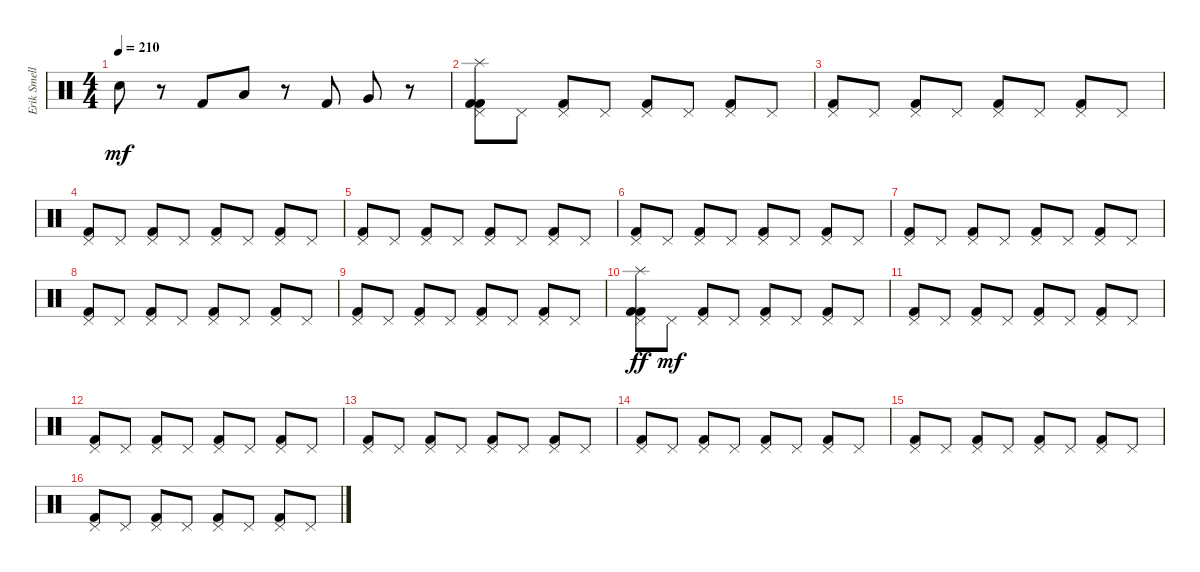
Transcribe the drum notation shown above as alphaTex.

\track ("Erik Smelly" "Erik Smell") {instrument percussion}
\staff {score}
\articulation defaults
\ts (4 4)
\tempo 210
\clef neutral
\ks c "Electric Snare (hit)".8{dy mf}
r.8 "Kick (hit) 2".8 "Low Tom (hit)".8 r.8 "Kick (hit) 2".8 "Very Low Tom (hit)".8 r.8 |
("Pedal Hi-Hat (hit)" "Kick (hit) 2" "Splash (hit)" "Kick (hit) 2").8 "Pedal Hi-Hat (hit)".8 ("Pedal Hi-Hat (hit)" "Kick (hit) 2").8 "Pedal Hi-Hat (hit)".8 ("Pedal Hi-Hat (hit)" "Kick (hit) 2").8 "Pedal Hi-Hat (hit)".8 ("Pedal Hi-Hat (hit)" "Kick (hit) 2").8 "Pedal Hi-Hat (hit)".8 |
("Pedal Hi-Hat (hit)" "Kick (hit) 2").8 "Pedal Hi-Hat (hit)".8 ("Pedal Hi-Hat (hit)" "Kick (hit) 2").8 "Pedal Hi-Hat (hit)".8 ("Pedal Hi-Hat (hit)" "Kick (hit) 2").8 "Pedal Hi-Hat (hit)".8 ("Pedal Hi-Hat (hit)" "Kick (hit) 2").8 "Pedal Hi-Hat (hit)".8 |
("Pedal Hi-Hat (hit)" "Kick (hit) 2").8 "Pedal Hi-Hat (hit)".8 ("Pedal Hi-Hat (hit)" "Kick (hit) 2").8 "Pedal Hi-Hat (hit)".8 ("Pedal Hi-Hat (hit)" "Kick (hit) 2").8 "Pedal Hi-Hat (hit)".8 ("Pedal Hi-Hat (hit)" "Kick (hit) 2").8 "Pedal Hi-Hat (hit)".8 |
("Pedal Hi-Hat (hit)" "Kick (hit) 2").8 "Pedal Hi-Hat (hit)".8 ("Pedal Hi-Hat (hit)" "Kick (hit) 2").8 "Pedal Hi-Hat (hit)".8 ("Pedal Hi-Hat (hit)" "Kick (hit) 2").8 "Pedal Hi-Hat (hit)".8 ("Pedal Hi-Hat (hit)" "Kick (hit) 2").8 "Pedal Hi-Hat (hit)".8 |
("Pedal Hi-Hat (hit)" "Kick (hit) 2").8 "Pedal Hi-Hat (hit)".8 ("Pedal Hi-Hat (hit)" "Kick (hit) 2").8 "Pedal Hi-Hat (hit)".8 ("Pedal Hi-Hat (hit)" "Kick (hit) 2").8 "Pedal Hi-Hat (hit)".8 ("Pedal Hi-Hat (hit)" "Kick (hit) 2").8 "Pedal Hi-Hat (hit)".8 |
("Pedal Hi-Hat (hit)" "Kick (hit) 2").8 "Pedal Hi-Hat (hit)".8 ("Pedal Hi-Hat (hit)" "Kick (hit) 2").8 "Pedal Hi-Hat (hit)".8 ("Pedal Hi-Hat (hit)" "Kick (hit) 2").8 "Pedal Hi-Hat (hit)".8 ("Pedal Hi-Hat (hit)" "Kick (hit) 2").8 "Pedal Hi-Hat (hit)".8 |
("Pedal Hi-Hat (hit)" "Kick (hit) 2").8 "Pedal Hi-Hat (hit)".8 ("Pedal Hi-Hat (hit)" "Kick (hit) 2").8 "Pedal Hi-Hat (hit)".8 ("Pedal Hi-Hat (hit)" "Kick (hit) 2").8 "Pedal Hi-Hat (hit)".8 ("Pedal Hi-Hat (hit)" "Kick (hit) 2").8 "Pedal Hi-Hat (hit)".8 |
("Pedal Hi-Hat (hit)" "Kick (hit) 2").8 "Pedal Hi-Hat (hit)".8 ("Pedal Hi-Hat (hit)" "Kick (hit) 2").8 "Pedal Hi-Hat (hit)".8 ("Pedal Hi-Hat (hit)" "Kick (hit) 2").8 "Pedal Hi-Hat (hit)".8 ("Pedal Hi-Hat (hit)" "Kick (hit) 2").8 "Pedal Hi-Hat (hit)".8 |
("Pedal Hi-Hat (hit)" "Kick (hit) 2" "Kick (hit) 2" "Splash (hit)").8{dy ff} "Pedal Hi-Hat (hit)".8{dy mf} ("Pedal Hi-Hat (hit)" "Kick (hit) 2").8 "Pedal Hi-Hat (hit)".8 ("Pedal Hi-Hat (hit)" "Kick (hit) 2").8 "Pedal Hi-Hat (hit)".8 ("Pedal Hi-Hat (hit)" "Kick (hit) 2").8 "Pedal Hi-Hat (hit)".8 |
("Pedal Hi-Hat (hit)" "Kick (hit) 2").8 "Pedal Hi-Hat (hit)".8 ("Pedal Hi-Hat (hit)" "Kick (hit) 2").8 "Pedal Hi-Hat (hit)".8 ("Pedal Hi-Hat (hit)" "Kick (hit) 2").8 "Pedal Hi-Hat (hit)".8 ("Pedal Hi-Hat (hit)" "Kick (hit) 2").8 "Pedal Hi-Hat (hit)".8 |
("Pedal Hi-Hat (hit)" "Kick (hit) 2").8 "Pedal Hi-Hat (hit)".8 ("Pedal Hi-Hat (hit)" "Kick (hit) 2").8 "Pedal Hi-Hat (hit)".8 ("Pedal Hi-Hat (hit)" "Kick (hit) 2").8 "Pedal Hi-Hat (hit)".8 ("Pedal Hi-Hat (hit)" "Kick (hit) 2").8 "Pedal Hi-Hat (hit)".8 |
("Pedal Hi-Hat (hit)" "Kick (hit) 2").8 "Pedal Hi-Hat (hit)".8 ("Pedal Hi-Hat (hit)" "Kick (hit) 2").8 "Pedal Hi-Hat (hit)".8 ("Pedal Hi-Hat (hit)" "Kick (hit) 2").8 "Pedal Hi-Hat (hit)".8 ("Pedal Hi-Hat (hit)" "Kick (hit) 2").8 "Pedal Hi-Hat (hit)".8 |
("Pedal Hi-Hat (hit)" "Kick (hit) 2").8 "Pedal Hi-Hat (hit)".8 ("Pedal Hi-Hat (hit)" "Kick (hit) 2").8 "Pedal Hi-Hat (hit)".8 ("Pedal Hi-Hat (hit)" "Kick (hit) 2").8 "Pedal Hi-Hat (hit)".8 ("Pedal Hi-Hat (hit)" "Kick (hit) 2").8 "Pedal Hi-Hat (hit)".8 |
("Pedal Hi-Hat (hit)" "Kick (hit) 2").8 "Pedal Hi-Hat (hit)".8 ("Pedal Hi-Hat (hit)" "Kick (hit) 2").8 "Pedal Hi-Hat (hit)".8 ("Pedal Hi-Hat (hit)" "Kick (hit) 2").8 "Pedal Hi-Hat (hit)".8 ("Pedal Hi-Hat (hit)" "Kick (hit) 2").8 "Pedal Hi-Hat (hit)".8 |
("Pedal Hi-Hat (hit)" "Kick (hit) 2").8 "Pedal Hi-Hat (hit)".8 ("Pedal Hi-Hat (hit)" "Kick (hit) 2").8 "Pedal Hi-Hat (hit)".8 ("Pedal Hi-Hat (hit)" "Kick (hit) 2").8 "Pedal Hi-Hat (hit)".8 ("Pedal Hi-Hat (hit)" "Kick (hit) 2").8 "Pedal Hi-Hat (hit)".8
